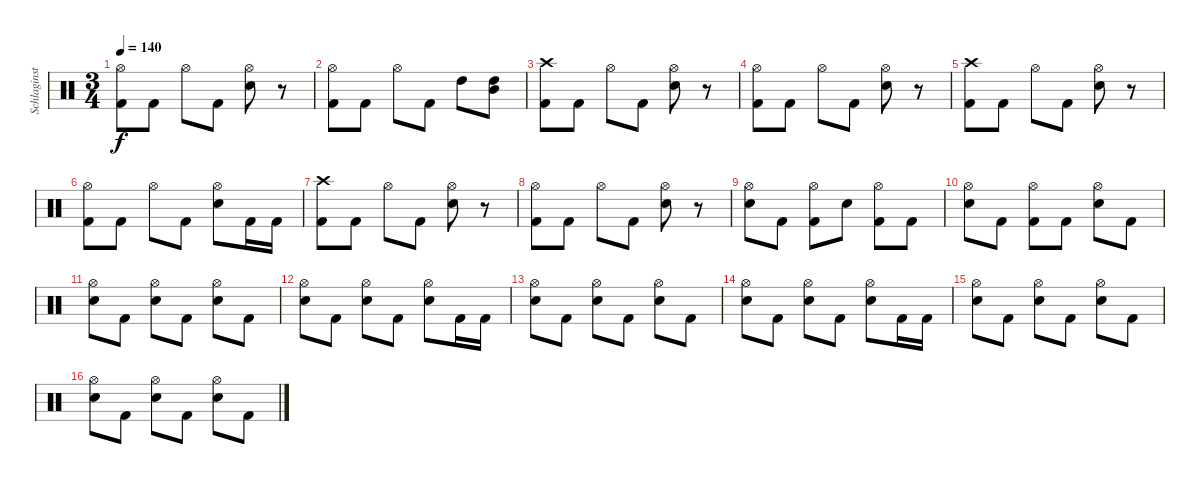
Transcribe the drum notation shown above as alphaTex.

\track ("Schlaginstrumente - Auswahl" "Schlaginst") {instrument percussion}
\staff {score}
\articulation defaults
\ts (3 4)
\tempo 140
\clef neutral
\ks c
("Hi-Hat (open)" "Kick (hit) 2").8{dy f} "Kick (hit) 2".8 "Hi-Hat (open)".8 "Kick (hit) 2".8 ("Hi-Hat (open)" "Electric Snare (hit)").8 r.8 |
("Hi-Hat (open)" "Kick (hit) 2").8 "Kick (hit) 2".8 "Hi-Hat (open)".8 "Kick (hit) 2".8 "High Tom (hit)".8 ("High Tom (hit)" "Mid Tom (hit)").8 |
("Crash high (hit)" "Kick (hit) 2").8 "Kick (hit) 2".8 "Hi-Hat (open)".8 "Kick (hit) 2".8 ("Hi-Hat (open)" "Electric Snare (hit)").8 r.8 |
("Hi-Hat (open)" "Kick (hit) 2").8 "Kick (hit) 2".8 "Hi-Hat (open)".8 "Kick (hit) 2".8 ("Hi-Hat (open)" "Electric Snare (hit)").8 r.8 |
("Crash high (hit)" "Kick (hit) 2").8 "Kick (hit) 2".8 "Hi-Hat (open)".8 "Kick (hit) 2".8 ("Hi-Hat (open)" "Electric Snare (hit)").8 r.8 |
("Hi-Hat (open)" "Kick (hit) 2").8 "Kick (hit) 2".8 "Hi-Hat (open)".8 "Kick (hit) 2".8 ("Hi-Hat (open)" "Electric Snare (hit)").8 "Kick (hit) 2".16 "Kick (hit) 2".16 |
("Crash high (hit)" "Kick (hit) 2").8 "Kick (hit) 2".8 "Hi-Hat (open)".8 "Kick (hit) 2".8 ("Hi-Hat (open)" "Electric Snare (hit)").8 r.8 |
("Hi-Hat (open)" "Kick (hit) 2").8 "Kick (hit) 2".8 "Hi-Hat (open)".8 "Kick (hit) 2".8 ("Hi-Hat (open)" "Electric Snare (hit)").8 r.8 |
("Hi-Hat (open)" "Electric Snare (hit)").8 "Kick (hit) 2".8 ("Hi-Hat (open)" "Kick (hit) 2").8 "Electric Snare (hit)".8 ("Hi-Hat (open)" "Kick (hit) 2").8 "Kick (hit) 2".8 |
("Hi-Hat (open)" "Electric Snare (hit)").8 "Kick (hit) 2".8 ("Hi-Hat (open)" "Kick (hit) 2").8 "Kick (hit) 2".8 ("Hi-Hat (open)" "Electric Snare (hit)").8 "Kick (hit) 2".8 |
("Hi-Hat (open)" "Electric Snare (hit)").8 "Kick (hit) 2".8 ("Hi-Hat (open)" "Electric Snare (hit)").8 "Kick (hit) 2".8 ("Hi-Hat (open)" "Electric Snare (hit)").8 "Kick (hit) 2".8 |
("Hi-Hat (open)" "Electric Snare (hit)").8 "Kick (hit) 2".8 ("Hi-Hat (open)" "Electric Snare (hit)").8 "Kick (hit) 2".8 ("Hi-Hat (open)" "Electric Snare (hit)").8 "Kick (hit) 2".16 "Kick (hit) 2".16 |
("Hi-Hat (open)" "Electric Snare (hit)").8 "Kick (hit) 2".8 ("Hi-Hat (open)" "Electric Snare (hit)").8 "Kick (hit) 2".8 ("Hi-Hat (open)" "Electric Snare (hit)").8 "Kick (hit) 2".8 |
("Hi-Hat (open)" "Electric Snare (hit)").8 "Kick (hit) 2".8 ("Hi-Hat (open)" "Electric Snare (hit)").8 "Kick (hit) 2".8 ("Hi-Hat (open)" "Electric Snare (hit)").8 "Kick (hit) 2".16 "Kick (hit) 2".16 |
("Hi-Hat (open)" "Electric Snare (hit)").8 "Kick (hit) 2".8 ("Hi-Hat (open)" "Electric Snare (hit)").8 "Kick (hit) 2".8 ("Hi-Hat (open)" "Electric Snare (hit)").8 "Kick (hit) 2".8 |
("Hi-Hat (open)" "Electric Snare (hit)").8 "Kick (hit) 2".8 ("Hi-Hat (open)" "Electric Snare (hit)").8 "Kick (hit) 2".8 ("Hi-Hat (open)" "Electric Snare (hit)").8 "Kick (hit) 2".8
